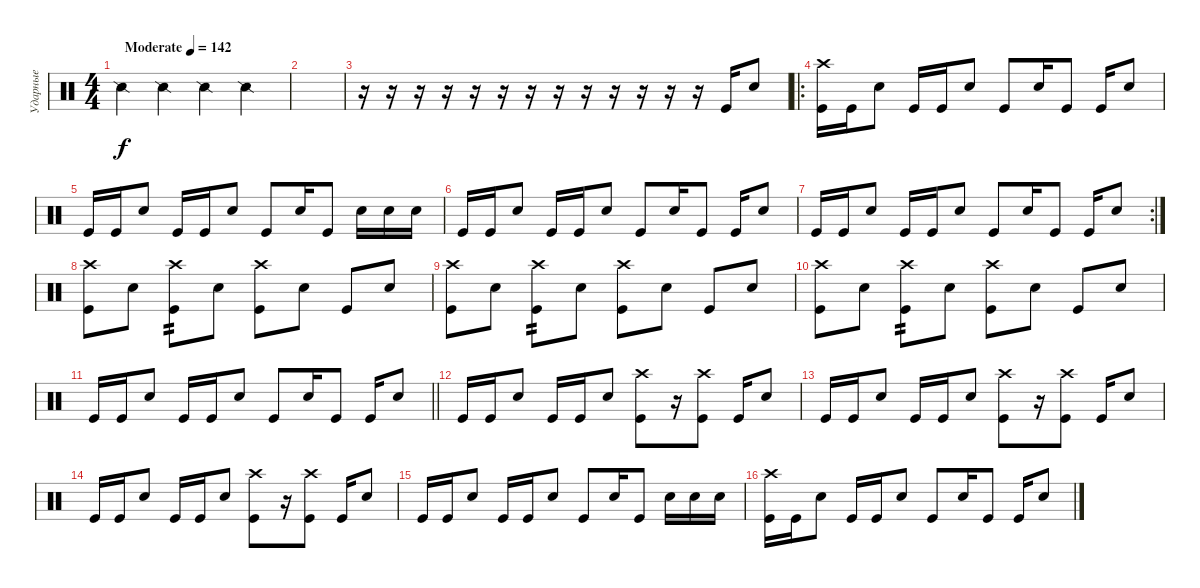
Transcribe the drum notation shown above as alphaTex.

\track ("Ударные" "Ударные") {instrument percussion}
\staff {score}
\articulation defaults
\ts (4 4)
\tempo (142 "Moderate")
\clef neutral
\ks c "Snare (side stick) 2".4{dy f} "Snare (side stick) 2".4 "Snare (side stick) 2".4 "Snare (side stick) 2".4
|
|
r.16 r.16 r.16 r.16 r.16 r.16 r.16 r.16 r.16 r.16 r.16 r.16 r.16 "Kick (hit)".16 "Electric Snare (hit)".8 |
\ro
("Crash high (hit)" "Kick (hit)").16 "Kick (hit)".16 "Electric Snare (hit)".8 "Kick (hit)".16 "Kick (hit)".16 "Electric Snare (hit)".8 "Kick (hit)".8 "Electric Snare (hit)".16 "Kick (hit)".8 "Kick (hit)".16 "Electric Snare (hit)".8 |
"Kick (hit)".16 "Kick (hit)".16 "Electric Snare (hit)".8 "Kick (hit)".16 "Kick (hit)".16 "Electric Snare (hit)".8 "Kick (hit)".8 "Electric Snare (hit)".16 "Kick (hit)".8 "Electric Snare (hit)".16 "Electric Snare (hit)".16 "Electric Snare (hit)".16 |
"Kick (hit)".16 "Kick (hit)".16 "Electric Snare (hit)".8 "Kick (hit)".16 "Kick (hit)".16 "Electric Snare (hit)".8 "Kick (hit)".8 "Electric Snare (hit)".16 "Kick (hit)".8 "Kick (hit)".16 "Electric Snare (hit)".8 |
\rc 2 "Kick (hit)".16 "Kick (hit)".16 "Electric Snare (hit)".8 "Kick (hit)".16 "Kick (hit)".16 "Electric Snare (hit)".8 "Kick (hit)".8 "Electric Snare (hit)".16 "Kick (hit)".8 "Kick (hit)".16 "Electric Snare (hit)".8
|
("Crash high (hit)" "Kick (hit)").8 "Electric Snare (hit)".8 ("Crash high (hit)" "Kick (hit)").8{tp 2} "Electric Snare (hit)".8 ("Crash high (hit)" "Kick (hit)").8 "Electric Snare (hit)".8 "Kick (hit)".8 "Electric Snare (hit)".8 |
("Crash high (hit)" "Kick (hit)").8 "Electric Snare (hit)".8 ("Crash high (hit)" "Kick (hit)").8{tp 2} "Electric Snare (hit)".8 ("Crash high (hit)" "Kick (hit)").8 "Electric Snare (hit)".8 "Kick (hit)".8 "Electric Snare (hit)".8 |
("Crash high (hit)" "Kick (hit)").8 "Electric Snare (hit)".8 ("Crash high (hit)" "Kick (hit)").8{tp 2} "Electric Snare (hit)".8 ("Crash high (hit)" "Kick (hit)").8 "Electric Snare (hit)".8 "Kick (hit)".8 "Electric Snare (hit)".8 |
\barLineRight lightlight "Kick (hit)".16 "Kick (hit)".16 "Electric Snare (hit)".8 "Kick (hit)".16 "Kick (hit)".16 "Electric Snare (hit)".8 "Kick (hit)".8 "Electric Snare (hit)".16 "Kick (hit)".8 "Kick (hit)".16 "Electric Snare (hit)".8
|
"Kick (hit)".16 "Kick (hit)".16 "Electric Snare (hit)".8 "Kick (hit)".16 "Kick (hit)".16 "Electric Snare (hit)".8 ("Crash high (hit)" "Kick (hit)").8 r.16 ("Crash high (hit)" "Kick (hit)").8 "Kick (hit)".16 "Electric Snare (hit)".8 |
"Kick (hit)".16 "Kick (hit)".16 "Electric Snare (hit)".8 "Kick (hit)".16 "Kick (hit)".16 "Electric Snare (hit)".8 ("Crash high (hit)" "Kick (hit)").8 r.16 ("Crash high (hit)" "Kick (hit)").8 "Kick (hit)".16 "Electric Snare (hit)".8 |
"Kick (hit)".16 "Kick (hit)".16 "Electric Snare (hit)".8 "Kick (hit)".16 "Kick (hit)".16 "Electric Snare (hit)".8 ("Crash high (hit)" "Kick (hit)").8 r.16 ("Crash high (hit)" "Kick (hit)").8 "Kick (hit)".16 "Electric Snare (hit)".8 |
"Kick (hit)".16 "Kick (hit)".16 "Electric Snare (hit)".8 "Kick (hit)".16 "Kick (hit)".16 "Electric Snare (hit)".8 "Kick (hit)".8 "Electric Snare (hit)".16 "Kick (hit)".8 "Electric Snare (hit)".16 "Electric Snare (hit)".16 "Electric Snare (hit)".16 |
("Crash high (hit)" "Kick (hit)").16 "Kick (hit)".16 "Electric Snare (hit)".8 "Kick (hit)".16 "Kick (hit)".16 "Electric Snare (hit)".8 "Kick (hit)".8 "Electric Snare (hit)".16 "Kick (hit)".8 "Kick (hit)".16 "Electric Snare (hit)".8
